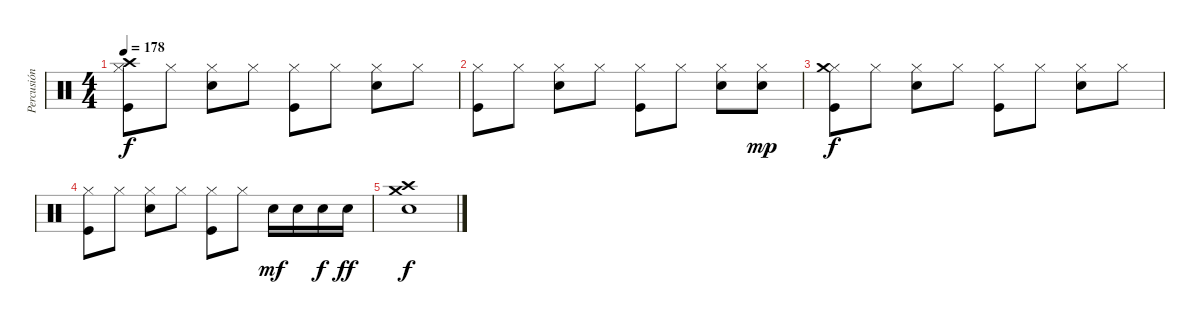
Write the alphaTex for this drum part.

\track ("Percusión" "Percusión") {instrument percussion}
\staff {score}
\articulation defaults
\ts (4 4)
\tempo 178
\clef neutral
\ks c
("Hi-Hat (closed)" "Crash high (hit)" "Kick (hit)").8{dy f} "Hi-Hat (closed)".8 ("Hi-Hat (closed)" "Electric Snare (hit)").8 "Hi-Hat (closed)".8 ("Hi-Hat (closed)" "Kick (hit)").8 "Hi-Hat (closed)".8 ("Hi-Hat (closed)" "Electric Snare (hit)").8 "Hi-Hat (closed)".8 |
("Hi-Hat (closed)" "Kick (hit)").8 "Hi-Hat (closed)".8 ("Hi-Hat (closed)" "Electric Snare (hit)").8 "Hi-Hat (closed)".8 ("Hi-Hat (closed)" "Kick (hit)").8 "Hi-Hat (closed)".8 ("Hi-Hat (closed)" "Electric Snare (hit)").8 ("Hi-Hat (closed)" "Electric Snare (hit)").8{dy mp} |
("Hi-Hat (closed)" "Crash medium (hit)" "Kick (hit)").8{dy f} "Hi-Hat (closed)".8 ("Hi-Hat (closed)" "Electric Snare (hit)").8 "Hi-Hat (closed)".8 ("Hi-Hat (closed)" "Kick (hit)").8 "Hi-Hat (closed)".8 ("Hi-Hat (closed)" "Electric Snare (hit)").8 "Hi-Hat (closed)".8 |
("Hi-Hat (closed)" "Kick (hit)").8 "Hi-Hat (closed)".8 ("Hi-Hat (closed)" "Electric Snare (hit)").8 "Hi-Hat (closed)".8 ("Hi-Hat (closed)" "Kick (hit)").8 "Hi-Hat (closed)".8 "Electric Snare (hit)".16{dy mf} "Electric Snare (hit)".16 "Electric Snare (hit)".16{dy f} "Electric Snare (hit)".16{dy ff} |
("Electric Snare (hit)" "Crash high (hit)" "Crash medium (hit)").1{dy f}
